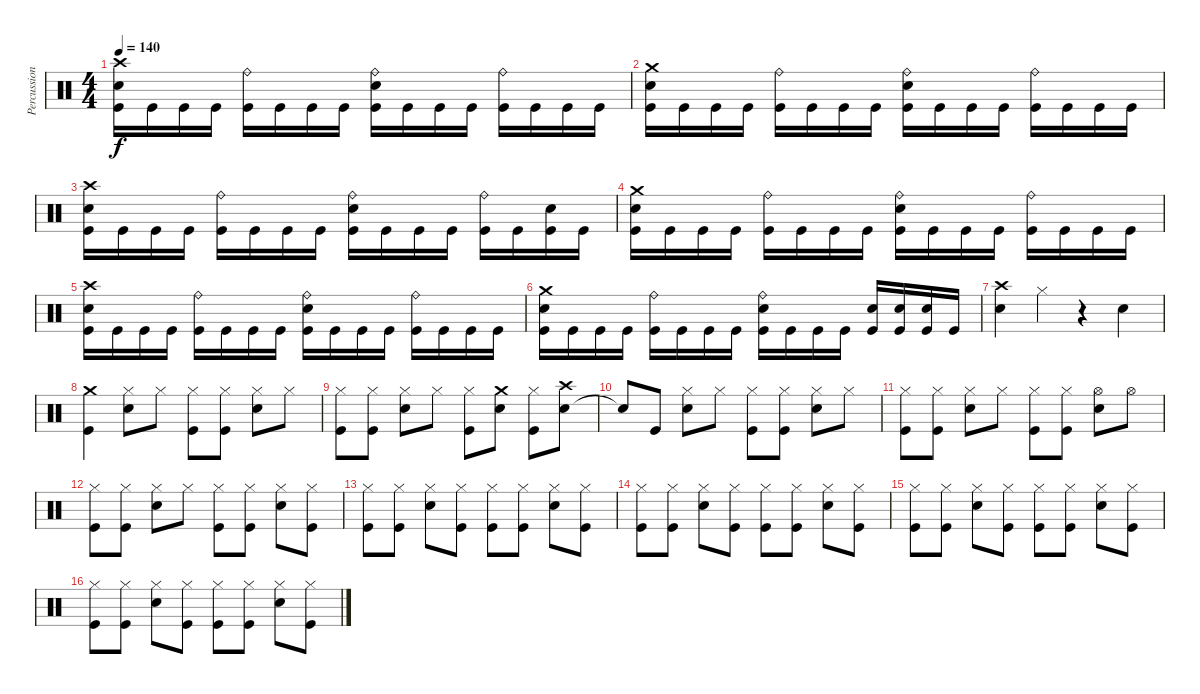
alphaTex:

\track ("Percussion" "Percussion") {instrument percussion}
\staff {score}
\articulation defaults
\ts (4 4)
\tempo 140
\clef neutral
\ks c
("Kick (hit)" "Snare (hit) 2" "Crash high (hit)").16{dy f} "Kick (hit)".16 "Kick (hit)".16 "Kick (hit)".16 ("Kick (hit)" "Ride (bell)").16 "Kick (hit)".16 "Kick (hit)".16 "Kick (hit)".16 ("Kick (hit)" "Snare (hit) 2" "Ride (bell)").16 "Kick (hit)".16 "Kick (hit)".16 "Kick (hit)".16 ("Kick (hit)" "Ride (bell)").16 "Kick (hit)".16 "Kick (hit)".16 "Kick (hit)".16 |
("Kick (hit)" "Snare (hit) 2" "Crash medium (hit)").16 "Kick (hit)".16 "Kick (hit)".16 "Kick (hit)".16 ("Kick (hit)" "Ride (bell)").16 "Kick (hit)".16 "Kick (hit)".16 "Kick (hit)".16 ("Kick (hit)" "Snare (hit) 2" "Ride (bell)").16 "Kick (hit)".16 "Kick (hit)".16 "Kick (hit)".16 ("Kick (hit)" "Ride (bell)").16 "Kick (hit)".16 "Kick (hit)".16 "Kick (hit)".16 |
("Kick (hit)" "Snare (hit) 2" "Crash high (hit)").16 "Kick (hit)".16 "Kick (hit)".16 "Kick (hit)".16 ("Kick (hit)" "Ride (bell)").16 "Kick (hit)".16 "Kick (hit)".16 "Kick (hit)".16 ("Kick (hit)" "Snare (hit) 2" "Ride (bell)").16 "Kick (hit)".16 "Kick (hit)".16 "Kick (hit)".16 ("Kick (hit)" "Ride (bell)").16 "Kick (hit)".16 ("Kick (hit)" "Snare (hit) 2").16 "Kick (hit)".16 |
("Kick (hit)" "Snare (hit) 2" "Crash medium (hit)").16 "Kick (hit)".16 "Kick (hit)".16 "Kick (hit)".16 ("Kick (hit)" "Ride (bell)").16 "Kick (hit)".16 "Kick (hit)".16 "Kick (hit)".16 ("Kick (hit)" "Snare (hit) 2" "Ride (bell)").16 "Kick (hit)".16 "Kick (hit)".16 "Kick (hit)".16 ("Kick (hit)" "Ride (bell)").16 "Kick (hit)".16 "Kick (hit)".16 "Kick (hit)".16 |
("Kick (hit)" "Snare (hit) 2" "Crash high (hit)").16 "Kick (hit)".16 "Kick (hit)".16 "Kick (hit)".16 ("Kick (hit)" "Ride (bell)").16 "Kick (hit)".16 "Kick (hit)".16 "Kick (hit)".16 ("Kick (hit)" "Snare (hit) 2" "Ride (bell)").16 "Kick (hit)".16 "Kick (hit)".16 "Kick (hit)".16 ("Kick (hit)" "Ride (bell)").16 "Kick (hit)".16 "Kick (hit)".16 "Kick (hit)".16 |
("Kick (hit)" "Snare (hit) 2" "Crash medium (hit)").16 "Kick (hit)".16 "Kick (hit)".16 "Kick (hit)".16 ("Kick (hit)" "Ride (bell)").16 "Kick (hit)".16 "Kick (hit)".16 "Kick (hit)".16 ("Kick (hit)" "Snare (hit) 2" "Ride (bell)").16 "Kick (hit)".16 "Kick (hit)".16 "Kick (hit)".16 ("Kick (hit)" "Snare (hit) 2").16 ("Kick (hit)" "Snare (hit) 2").16 ("Kick (hit)" "Snare (hit) 2").16 "Kick (hit)".16 |
("Snare (hit) 2" "Crash high (hit)").4 "Hi-Hat (closed)".4 r.4 "Snare (hit) 2".4 |
("Kick (hit)" "Crash medium (hit)").4 ("Snare (hit) 2" "Hi-Hat (closed)").8 "Hi-Hat (closed)".8 ("Kick (hit)" "Hi-Hat (closed)").8 ("Kick (hit)" "Hi-Hat (closed)").8 ("Snare (hit) 2" "Hi-Hat (closed)").8 "Hi-Hat (closed)".8 |
("Kick (hit)" "Hi-Hat (closed)").8 ("Kick (hit)" "Hi-Hat (closed)").8 ("Snare (hit) 2" "Hi-Hat (closed)").8 "Hi-Hat (closed)".8 ("Kick (hit)" "Hi-Hat (closed)").8 ("Snare (hit) 2" "Crash medium (hit)").8 ("Kick (hit)" "Hi-Hat (closed)").8 ("Snare (hit) 2" "Crash high (hit)").8 |
"Snare (hit)"{t}.8 "Kick (hit)".8 ("Snare (hit) 2" "Hi-Hat (closed)").8 "Hi-Hat (closed)".8 ("Kick (hit)" "Hi-Hat (closed)").8 ("Kick (hit)" "Hi-Hat (closed)").8 ("Snare (hit) 2" "Hi-Hat (closed)").8 "Hi-Hat (closed)".8 |
("Kick (hit)" "Hi-Hat (closed)").8 ("Kick (hit)" "Hi-Hat (closed)").8 ("Snare (hit) 2" "Hi-Hat (closed)").8 "Hi-Hat (closed)".8 ("Kick (hit)" "Hi-Hat (closed)").8 ("Kick (hit)" "Hi-Hat (closed)").8 ("Snare (hit) 2" "Hi-Hat (open)").8 "Hi-Hat (open)".8 |
("Kick (hit)" "Hi-Hat (closed)").8 ("Kick (hit)" "Hi-Hat (closed)").8 ("Snare (hit) 2" "Hi-Hat (closed)").8 "Hi-Hat (closed)".8 ("Kick (hit)" "Hi-Hat (closed)").8 ("Kick (hit)" "Hi-Hat (closed)").8 ("Snare (hit) 2" "Hi-Hat (closed)").8 ("Kick (hit)" "Hi-Hat (closed)").8 |
("Kick (hit)" "Hi-Hat (closed)").8 ("Kick (hit)" "Hi-Hat (closed)").8 ("Snare (hit) 2" "Hi-Hat (closed)").8 ("Kick (hit)" "Hi-Hat (closed)").8 ("Kick (hit)" "Hi-Hat (closed)").8 ("Kick (hit)" "Hi-Hat (closed)").8 ("Snare (hit) 2" "Hi-Hat (closed)").8 ("Kick (hit)" "Hi-Hat (closed)").8 |
("Kick (hit)" "Hi-Hat (closed)").8 ("Kick (hit)" "Hi-Hat (closed)").8 ("Snare (hit) 2" "Hi-Hat (closed)").8 ("Kick (hit)" "Hi-Hat (closed)").8 ("Kick (hit)" "Hi-Hat (closed)").8 ("Kick (hit)" "Hi-Hat (closed)").8 ("Snare (hit) 2" "Hi-Hat (closed)").8 ("Kick (hit)" "Hi-Hat (closed)").8 |
("Kick (hit)" "Hi-Hat (closed)").8 ("Kick (hit)" "Hi-Hat (closed)").8 ("Snare (hit) 2" "Hi-Hat (closed)").8 ("Kick (hit)" "Hi-Hat (closed)").8 ("Kick (hit)" "Hi-Hat (closed)").8 ("Kick (hit)" "Hi-Hat (closed)").8 ("Snare (hit) 2" "Hi-Hat (closed)").8 ("Kick (hit)" "Hi-Hat (closed)").8 |
("Kick (hit)" "Hi-Hat (closed)").8 ("Kick (hit)" "Hi-Hat (closed)").8 ("Snare (hit) 2" "Hi-Hat (closed)").8 ("Kick (hit)" "Hi-Hat (closed)").8 ("Kick (hit)" "Hi-Hat (closed)").8 ("Kick (hit)" "Hi-Hat (closed)").8 ("Snare (hit) 2" "Hi-Hat (closed)").8 ("Kick (hit)" "Hi-Hat (closed)").8
